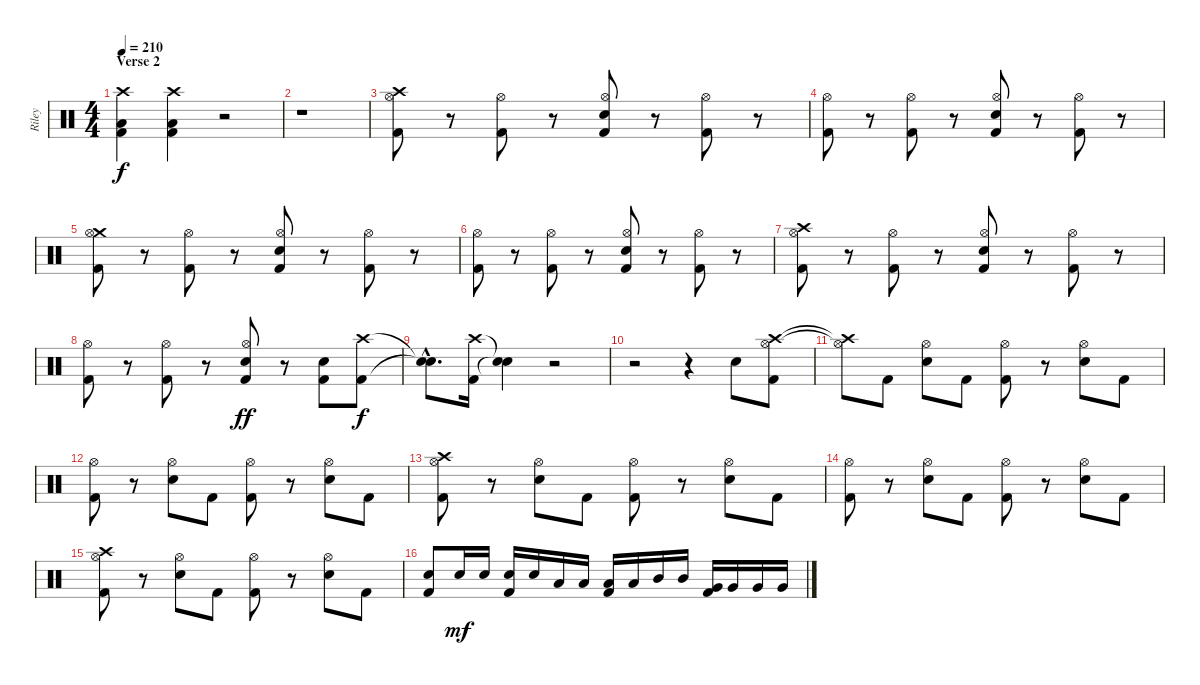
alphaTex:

\track ("Riley" "Riley") {instrument percussion}
\staff {score}
\articulation defaults
\ts (4 4)
\section ("" "Verse 2")
\tempo 210
\clef neutral
\ks c
("Crash high (hit)" "Low Tom (hit)" "Kick (hit) 2").4{dy f} ("Crash high (hit)" "Low Tom (hit)" "Kick (hit) 2").4 r.2 |
r.1 |
("Crash high (hit)" "Hi-Hat (open)" "Kick (hit) 2").8 r.8 ("Hi-Hat (open)" "Kick (hit) 2").8 r.8 ("Hi-Hat (open)" "Electric Snare (hit)" "Kick (hit) 2").8 r.8 ("Hi-Hat (open)" "Kick (hit) 2").8 r.8 |
("Hi-Hat (open)" "Kick (hit) 2").8 r.8 ("Hi-Hat (open)" "Kick (hit) 2").8 r.8 ("Hi-Hat (open)" "Electric Snare (hit)" "Kick (hit) 2").8 r.8 ("Hi-Hat (open)" "Kick (hit) 2").8 r.8 |
("Crash medium (hit)" "Hi-Hat (open)" "Kick (hit) 2").8 r.8 ("Hi-Hat (open)" "Kick (hit) 2").8 r.8 ("Hi-Hat (open)" "Electric Snare (hit)" "Kick (hit) 2").8 r.8 ("Hi-Hat (open)" "Kick (hit) 2").8 r.8 |
("Hi-Hat (open)" "Kick (hit) 2").8 r.8 ("Hi-Hat (open)" "Kick (hit) 2").8 r.8 ("Hi-Hat (open)" "Electric Snare (hit)" "Kick (hit) 2").8 r.8 ("Hi-Hat (open)" "Kick (hit) 2").8 r.8 |
("Crash high (hit)" "Hi-Hat (open)" "Kick (hit) 2").8 r.8 ("Hi-Hat (open)" "Kick (hit) 2").8 r.8 ("Hi-Hat (open)" "Electric Snare (hit)" "Kick (hit) 2").8 r.8 ("Hi-Hat (open)" "Kick (hit) 2").8 r.8 |
("Hi-Hat (open)" "Kick (hit) 2").8 r.8 ("Hi-Hat (open)" "Kick (hit) 2").8 r.8 ("Hi-Hat (open)" "Electric Snare (hit)" "Kick (hit) 2").8{dy ff} r.8 ("Electric Snare (hit)" "Kick (hit) 2").8 ("Crash high (hit)" "Kick (hit) 2").8{dy f} |
("Snare (hit)"{hac t} "Snare (hit)"{hac t}).8{d} ("Crash high (hit)" "Kick (hit) 2").16 ("Snare (hit)"{t} "Snare (hit)"{t}).4 r.2 |
r.2 r.4 "Electric Snare (hit)".8 ("Crash high (hit)" "Hi-Hat (open)" "Kick (hit) 2").8 |
("Crash high (hit)"{t} "Hi-Hat (open)"{t}).8 "Kick (hit) 2".8 ("Hi-Hat (open)" "Electric Snare (hit)").8 "Kick (hit) 2".8 ("Hi-Hat (open)" "Kick (hit) 2").8 r.8 ("Hi-Hat (open)" "Electric Snare (hit)").8 "Kick (hit) 2".8 |
("Hi-Hat (open)" "Kick (hit) 2").8 r.8 ("Hi-Hat (open)" "Electric Snare (hit)").8 "Kick (hit) 2".8 ("Hi-Hat (open)" "Kick (hit) 2").8 r.8 ("Hi-Hat (open)" "Electric Snare (hit)").8 "Kick (hit) 2".8 |
("Crash high (hit)" "Hi-Hat (open)" "Kick (hit) 2").8 r.8 ("Hi-Hat (open)" "Electric Snare (hit)").8 "Kick (hit) 2".8 ("Hi-Hat (open)" "Kick (hit) 2").8 r.8 ("Hi-Hat (open)" "Electric Snare (hit)").8 "Kick (hit) 2".8 |
("Hi-Hat (open)" "Kick (hit) 2").8 r.8 ("Hi-Hat (open)" "Electric Snare (hit)").8 "Kick (hit) 2".8 ("Hi-Hat (open)" "Kick (hit) 2").8 r.8 ("Hi-Hat (open)" "Electric Snare (hit)").8 "Kick (hit) 2".8 |
("Crash high (hit)" "Hi-Hat (open)" "Kick (hit) 2").8 r.8 ("Hi-Hat (open)" "Electric Snare (hit)").8 "Kick (hit) 2".8 ("Hi-Hat (open)" "Kick (hit) 2").8 r.8 ("Hi-Hat (open)" "Electric Snare (hit)").8 "Kick (hit) 2".8 |
("Electric Snare (hit)" "Kick (hit) 2").8 "Electric Snare (hit)".16{dy mf} "Electric Snare (hit)".16 ("Electric Snare (hit)" "Kick (hit) 2").16 "Electric Snare (hit)".16 "Low Tom (hit)".16 "Low Tom (hit)".16 ("Low Tom (hit)" "Kick (hit) 2").16 "Low Tom (hit)".16 "Mid Tom (hit)".16 "Mid Tom (hit)".16 ("Very Low Tom (hit)" "Kick (hit) 2").16 "Very Low Tom (hit)".16 "Very Low Tom (hit)".16 "Very Low Tom (hit)".16
